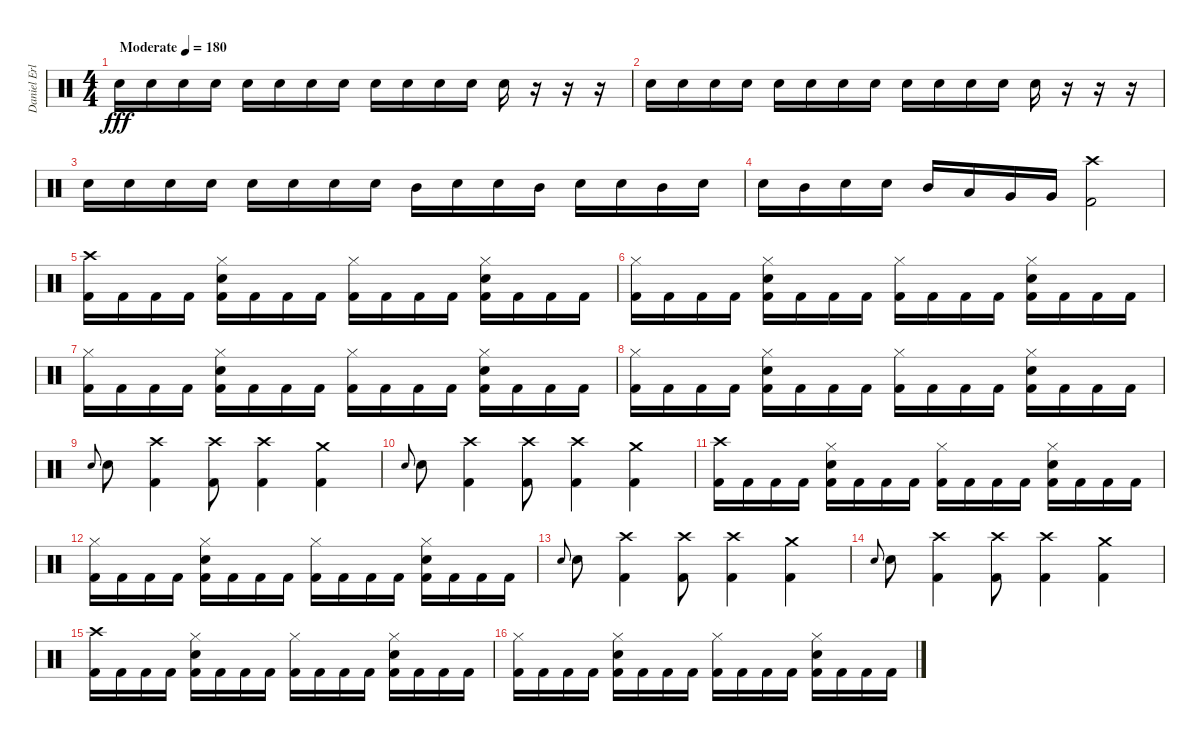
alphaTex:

\track ("Daniel Erlandsson" "Daniel Erl") {instrument percussion}
\staff {score}
\articulation defaults
\ts (4 4)
\tempo (180 "Moderate")
\clef neutral
\ks c "Electric Snare (hit)".16{dy fff} "Electric Snare (hit)".16 "Electric Snare (hit)".16 "Electric Snare (hit)".16 "Electric Snare (hit)".16 "Electric Snare (hit)".16 "Electric Snare (hit)".16 "Electric Snare (hit)".16 "Electric Snare (hit)".16 "Electric Snare (hit)".16 "Electric Snare (hit)".16 "Electric Snare (hit)".16 "Electric Snare (hit)".16
r.16 r.16 r.16 |
"Electric Snare (hit)".16 "Electric Snare (hit)".16 "Electric Snare (hit)".16 "Electric Snare (hit)".16 "Electric Snare (hit)".16 "Electric Snare (hit)".16 "Electric Snare (hit)".16 "Electric Snare (hit)".16 "Electric Snare (hit)".16 "Electric Snare (hit)".16 "Electric Snare (hit)".16 "Electric Snare (hit)".16 "Electric Snare (hit)".16 r.16 r.16 r.16 |
"Electric Snare (hit)".16 "Electric Snare (hit)".16 "Electric Snare (hit)".16 "Electric Snare (hit)".16 "Electric Snare (hit)".16 "Electric Snare (hit)".16 "Electric Snare (hit)".16 "Electric Snare (hit)".16 "Mid Tom (hit)".16 "Electric Snare (hit)".16 "Electric Snare (hit)".16 "Mid Tom (hit)".16 "Electric Snare (hit)".16 "Electric Snare (hit)".16 "Mid Tom (hit)".16 "Electric Snare (hit)".16 |
"Electric Snare (hit)".16 "Mid Tom (hit)".16 "Electric Snare (hit)".16 "Electric Snare (hit)".16 "Mid Tom (hit)".16 "Low Tom (hit)".16 "Very Low Tom (hit)".16 "Very Low Tom (hit)".16 ("Crash high (hit)" "Kick (hit) 2").2 |
("Crash high (hit)" "Kick (hit) 2").16 "Kick (hit) 2".16 "Kick (hit) 2".16 "Kick (hit) 2".16 ("Hi-Hat (closed)" "Electric Snare (hit)" "Kick (hit) 2").16 "Kick (hit) 2".16 "Kick (hit) 2".16 "Kick (hit) 2".16 ("Hi-Hat (closed)" "Kick (hit) 2").16 "Kick (hit) 2".16 "Kick (hit) 2".16 "Kick (hit) 2".16 ("Hi-Hat (closed)" "Electric Snare (hit)" "Kick (hit) 2").16 "Kick (hit) 2".16 "Kick (hit) 2".16 "Kick (hit) 2".16 |
("Hi-Hat (closed)" "Kick (hit) 2").16 "Kick (hit) 2".16 "Kick (hit) 2".16 "Kick (hit) 2".16 ("Hi-Hat (closed)" "Electric Snare (hit)" "Kick (hit) 2").16 "Kick (hit) 2".16 "Kick (hit) 2".16 "Kick (hit) 2".16 ("Hi-Hat (closed)" "Kick (hit) 2").16 "Kick (hit) 2".16 "Kick (hit) 2".16 "Kick (hit) 2".16 ("Hi-Hat (closed)" "Electric Snare (hit)" "Kick (hit) 2").16 "Kick (hit) 2".16 "Kick (hit) 2".16 "Kick (hit) 2".16 |
("Hi-Hat (closed)" "Kick (hit) 2").16 "Kick (hit) 2".16 "Kick (hit) 2".16 "Kick (hit) 2".16 ("Hi-Hat (closed)" "Electric Snare (hit)" "Kick (hit) 2").16 "Kick (hit) 2".16 "Kick (hit) 2".16 "Kick (hit) 2".16 ("Hi-Hat (closed)" "Kick (hit) 2").16 "Kick (hit) 2".16 "Kick (hit) 2".16 "Kick (hit) 2".16 ("Hi-Hat (closed)" "Electric Snare (hit)" "Kick (hit) 2").16 "Kick (hit) 2".16 "Kick (hit) 2".16 "Kick (hit) 2".16 |
("Hi-Hat (closed)" "Kick (hit) 2").16 "Kick (hit) 2".16 "Kick (hit) 2".16 "Kick (hit) 2".16 ("Hi-Hat (closed)" "Electric Snare (hit)" "Kick (hit) 2").16 "Kick (hit) 2".16 "Kick (hit) 2".16 "Kick (hit) 2".16 ("Hi-Hat (closed)" "Kick (hit) 2").16 "Kick (hit) 2".16 "Kick (hit) 2".16 "Kick (hit) 2".16 ("Hi-Hat (closed)" "Electric Snare (hit)" "Kick (hit) 2").16 "Kick (hit) 2".16 "Kick (hit) 2".16 "Kick (hit) 2".16 |
"Electric Snare (hit)".8{gr onbeat} "Electric Snare (hit)".8 ("Crash high (hit)" "Kick (hit) 2").4 ("Crash high (hit)" "Kick (hit) 2").8 ("Crash high (hit)" "Kick (hit) 2").4 ("Crash medium (hit)" "Kick (hit) 2").4 |
"Electric Snare (hit)".8{gr onbeat} "Electric Snare (hit)".8 ("Crash high (hit)" "Kick (hit) 2").4 ("Crash high (hit)" "Kick (hit) 2").8 ("Crash high (hit)" "Kick (hit) 2").4 ("Crash medium (hit)" "Kick (hit) 2").4 |
("Crash high (hit)" "Kick (hit) 2").16 "Kick (hit) 2".16 "Kick (hit) 2".16 "Kick (hit) 2".16 ("Hi-Hat (closed)" "Electric Snare (hit)" "Kick (hit) 2").16 "Kick (hit) 2".16 "Kick (hit) 2".16 "Kick (hit) 2".16 ("Hi-Hat (closed)" "Kick (hit) 2").16 "Kick (hit) 2".16 "Kick (hit) 2".16 "Kick (hit) 2".16 ("Hi-Hat (closed)" "Electric Snare (hit)" "Kick (hit) 2").16 "Kick (hit) 2".16 "Kick (hit) 2".16 "Kick (hit) 2".16 |
("Hi-Hat (closed)" "Kick (hit) 2").16 "Kick (hit) 2".16 "Kick (hit) 2".16 "Kick (hit) 2".16 ("Hi-Hat (closed)" "Electric Snare (hit)" "Kick (hit) 2").16 "Kick (hit) 2".16 "Kick (hit) 2".16 "Kick (hit) 2".16 ("Hi-Hat (closed)" "Kick (hit) 2").16 "Kick (hit) 2".16 "Kick (hit) 2".16 "Kick (hit) 2".16 ("Hi-Hat (closed)" "Electric Snare (hit)" "Kick (hit) 2").16 "Kick (hit) 2".16 "Kick (hit) 2".16 "Kick (hit) 2".16 |
"Electric Snare (hit)".8{gr onbeat} "Electric Snare (hit)".8 ("Crash high (hit)" "Kick (hit) 2").4 ("Crash high (hit)" "Kick (hit) 2").8 ("Crash high (hit)" "Kick (hit) 2").4 ("Crash medium (hit)" "Kick (hit) 2").4 |
"Electric Snare (hit)".8{gr onbeat} "Electric Snare (hit)".8 ("Crash high (hit)" "Kick (hit) 2").4 ("Crash high (hit)" "Kick (hit) 2").8 ("Crash high (hit)" "Kick (hit) 2").4 ("Crash medium (hit)" "Kick (hit) 2").4 |
("Crash high (hit)" "Kick (hit) 2").16 "Kick (hit) 2".16 "Kick (hit) 2".16 "Kick (hit) 2".16 ("Hi-Hat (closed)" "Electric Snare (hit)" "Kick (hit) 2").16 "Kick (hit) 2".16 "Kick (hit) 2".16 "Kick (hit) 2".16 ("Hi-Hat (closed)" "Kick (hit) 2").16 "Kick (hit) 2".16 "Kick (hit) 2".16 "Kick (hit) 2".16 ("Hi-Hat (closed)" "Electric Snare (hit)" "Kick (hit) 2").16 "Kick (hit) 2".16 "Kick (hit) 2".16 "Kick (hit) 2".16 |
("Hi-Hat (closed)" "Kick (hit) 2").16 "Kick (hit) 2".16 "Kick (hit) 2".16 "Kick (hit) 2".16 ("Hi-Hat (closed)" "Electric Snare (hit)" "Kick (hit) 2").16 "Kick (hit) 2".16 "Kick (hit) 2".16 "Kick (hit) 2".16 ("Hi-Hat (closed)" "Kick (hit) 2").16 "Kick (hit) 2".16 "Kick (hit) 2".16 "Kick (hit) 2".16 ("Hi-Hat (closed)" "Electric Snare (hit)" "Kick (hit) 2").16 "Kick (hit) 2".16 "Kick (hit) 2".16 "Kick (hit) 2".16
